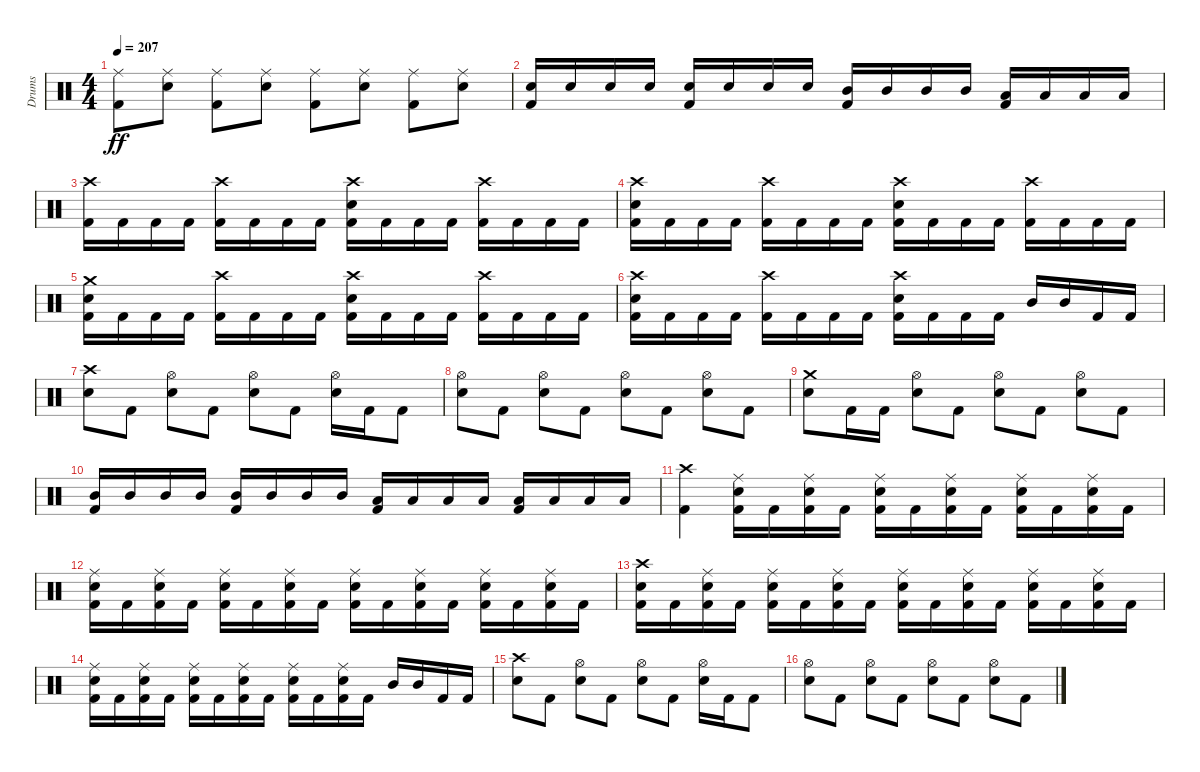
\track ("Drums" "Drums") {instrument percussion}
\staff {score}
\articulation defaults
\ts (4 4)
\tempo 207
\clef neutral
\ks c
("Ride (middle)" "Kick (hit) 2").8{dy ff} ("Ride (middle)" "Snare (hit) 2").8 ("Ride (middle)" "Kick (hit) 2").8 ("Ride (middle)" "Snare (hit) 2").8 ("Ride (middle)" "Kick (hit) 2").8 ("Ride (middle)" "Snare (hit) 2").8 ("Ride (middle)" "Kick (hit) 2").8 ("Ride (middle)" "Snare (hit) 2").8 |
("Snare (hit) 2" "Kick (hit) 2").16 "Snare (hit) 2".16 "Snare (hit) 2".16 "Snare (hit) 2".16 ("Snare (hit) 2" "Kick (hit) 2").16 "Snare (hit) 2".16 "Snare (hit) 2".16 "Snare (hit) 2".16 ("Mid Tom (hit)" "Kick (hit) 2").16 "Mid Tom (hit)".16 "Mid Tom (hit)".16 "Mid Tom (hit)".16 ("Low Tom (hit)" "Kick (hit) 2").16 "Low Tom (hit)".16 "Low Tom (hit)".16 "Low Tom (hit)".16 |
("Crash high (hit)" "Kick (hit) 2").16 "Kick (hit) 2".16 "Kick (hit) 2".16 "Kick (hit) 2".16 ("Crash high (hit)" "Kick (hit) 2").16 "Kick (hit) 2".16 "Kick (hit) 2".16 "Kick (hit) 2".16 ("Crash high (hit)" "Snare (hit) 2" "Kick (hit) 2").16 "Kick (hit) 2".16 "Kick (hit) 2".16 "Kick (hit) 2".16 ("Crash high (hit)" "Kick (hit) 2").16 "Kick (hit) 2".16 "Kick (hit) 2".16 "Kick (hit) 2".16 |
("Crash high (hit)" "Snare (hit) 2" "Kick (hit) 2").16 "Kick (hit) 2".16 "Kick (hit) 2".16 "Kick (hit) 2".16 ("Crash high (hit)" "Kick (hit) 2").16 "Kick (hit) 2".16 "Kick (hit) 2".16 "Kick (hit) 2".16 ("Crash high (hit)" "Snare (hit) 2" "Kick (hit) 2").16 "Kick (hit) 2".16 "Kick (hit) 2".16 "Kick (hit) 2".16 ("Crash high (hit)" "Kick (hit) 2").16 "Kick (hit) 2".16 "Kick (hit) 2".16 "Kick (hit) 2".16 |
("Crash medium (hit)" "Snare (hit) 2" "Kick (hit) 2").16 "Kick (hit) 2".16 "Kick (hit) 2".16 "Kick (hit) 2".16 ("Crash high (hit)" "Kick (hit) 2").16 "Kick (hit) 2".16 "Kick (hit) 2".16 "Kick (hit) 2".16 ("Crash high (hit)" "Snare (hit) 2" "Kick (hit) 2").16 "Kick (hit) 2".16 "Kick (hit) 2".16 "Kick (hit) 2".16 ("Crash high (hit)" "Kick (hit) 2").16 "Kick (hit) 2".16 "Kick (hit) 2".16 "Kick (hit) 2".16 |
("Crash high (hit)" "Snare (hit) 2" "Kick (hit) 2").16 "Kick (hit) 2".16 "Kick (hit) 2".16 "Kick (hit) 2".16 ("Crash high (hit)" "Kick (hit) 2").16 "Kick (hit) 2".16 "Kick (hit) 2".16 "Kick (hit) 2".16 ("Crash high (hit)" "Snare (hit) 2" "Kick (hit) 2").16 "Kick (hit) 2".16 "Kick (hit) 2".16 "Kick (hit) 2".16 "Mid Tom (hit)".16 "Mid Tom (hit)".16 "Kick (hit) 2".16 "Kick (hit) 2".16 |
("Crash high (hit)" "Snare (hit) 2").8 "Kick (hit) 2".8 ("Hi-Hat (open)" "Snare (hit) 2").8 "Kick (hit) 2".8 ("Hi-Hat (open)" "Snare (hit) 2").8 "Kick (hit) 2".8 ("Hi-Hat (open)" "Snare (hit) 2").16 "Kick (hit) 2".16 "Kick (hit) 2".8 |
("Hi-Hat (open)" "Snare (hit) 2").8 "Kick (hit) 2".8 ("Hi-Hat (open)" "Snare (hit) 2").8 "Kick (hit) 2".8 ("Hi-Hat (open)" "Snare (hit) 2").8 "Kick (hit) 2".8 ("Hi-Hat (open)" "Snare (hit) 2").8 "Kick (hit) 2".8 |
("Crash medium (hit)" "Snare (hit) 2").8 "Kick (hit) 2".16 "Kick (hit) 2".16 ("Hi-Hat (open)" "Snare (hit) 2").8 "Kick (hit) 2".8 ("Hi-Hat (open)" "Snare (hit) 2").8 "Kick (hit) 2".8 ("Hi-Hat (open)" "Snare (hit) 2").8 "Kick (hit) 2".8 |
("Mid Tom (hit)" "Kick (hit) 2").16 "Mid Tom (hit)".16 "Mid Tom (hit)".16 "Mid Tom (hit)".16 ("Mid Tom (hit)" "Kick (hit) 2").16 "Mid Tom (hit)".16 "Mid Tom (hit)".16 "Mid Tom (hit)".16 ("Low Tom (hit)" "Kick (hit) 2").16 "Low Tom (hit)".16 "Low Tom (hit)".16 "Low Tom (hit)".16 ("Low Tom (hit)" "Kick (hit) 2").16 "Low Tom (hit)".16 "Low Tom (hit)".16 "Low Tom (hit)".16 |
("Crash high (hit)" "Kick (hit) 2").4 ("Ride (middle)" "Snare (hit) 2" "Kick (hit) 2").16 "Kick (hit) 2".16 ("Ride (middle)" "Snare (hit) 2" "Kick (hit) 2").16 "Kick (hit) 2".16 ("Ride (middle)" "Snare (hit) 2" "Kick (hit) 2").16 "Kick (hit) 2".16 ("Ride (middle)" "Snare (hit) 2" "Kick (hit) 2").16 "Kick (hit) 2".16 ("Ride (middle)" "Snare (hit) 2" "Kick (hit) 2").16 "Kick (hit) 2".16 ("Ride (middle)" "Snare (hit) 2" "Kick (hit) 2").16 "Kick (hit) 2".16 |
("Ride (middle)" "Snare (hit) 2" "Kick (hit) 2").16 "Kick (hit) 2".16 ("Ride (middle)" "Snare (hit) 2" "Kick (hit) 2").16 "Kick (hit) 2".16 ("Ride (middle)" "Snare (hit) 2" "Kick (hit) 2").16 "Kick (hit) 2".16 ("Ride (middle)" "Snare (hit) 2" "Kick (hit) 2").16 "Kick (hit) 2".16 ("Ride (middle)" "Snare (hit) 2" "Kick (hit) 2").16 "Kick (hit) 2".16 ("Ride (middle)" "Snare (hit) 2" "Kick (hit) 2").16 "Kick (hit) 2".16 ("Ride (middle)" "Snare (hit) 2" "Kick (hit) 2").16 "Kick (hit) 2".16 ("Ride (middle)" "Snare (hit) 2" "Kick (hit) 2").16 "Kick (hit) 2".16 |
("Crash high (hit)" "Snare (hit) 2" "Kick (hit) 2").16 "Kick (hit) 2".16 ("Ride (middle)" "Snare (hit) 2" "Kick (hit) 2").16 "Kick (hit) 2".16 ("Ride (middle)" "Snare (hit) 2" "Kick (hit) 2").16 "Kick (hit) 2".16 ("Ride (middle)" "Snare (hit) 2" "Kick (hit) 2").16 "Kick (hit) 2".16 ("Ride (middle)" "Snare (hit) 2" "Kick (hit) 2").16 "Kick (hit) 2".16 ("Ride (middle)" "Snare (hit) 2" "Kick (hit) 2").16 "Kick (hit) 2".16 ("Ride (middle)" "Snare (hit) 2" "Kick (hit) 2").16 "Kick (hit) 2".16 ("Ride (middle)" "Snare (hit) 2" "Kick (hit) 2").16 "Kick (hit) 2".16 |
("Ride (middle)" "Snare (hit) 2" "Kick (hit) 2").16 "Kick (hit) 2".16 ("Ride (middle)" "Snare (hit) 2" "Kick (hit) 2").16 "Kick (hit) 2".16 ("Ride (middle)" "Snare (hit) 2" "Kick (hit) 2").16 "Kick (hit) 2".16 ("Ride (middle)" "Snare (hit) 2" "Kick (hit) 2").16 "Kick (hit) 2".16 ("Ride (middle)" "Snare (hit) 2" "Kick (hit) 2").16 "Kick (hit) 2".16 ("Ride (middle)" "Snare (hit) 2" "Kick (hit) 2").16 "Kick (hit) 2".16 "Mid Tom (hit)".16 "Mid Tom (hit)".16 "Kick (hit) 2".16 "Kick (hit) 2".16 |
("Crash high (hit)" "Snare (hit) 2").8 "Kick (hit) 2".8 ("Hi-Hat (open)" "Snare (hit) 2").8 "Kick (hit) 2".8 ("Hi-Hat (open)" "Snare (hit) 2").8 "Kick (hit) 2".8 ("Hi-Hat (open)" "Snare (hit) 2").16 "Kick (hit) 2".16 "Kick (hit) 2".8 |
("Hi-Hat (open)" "Snare (hit) 2").8 "Kick (hit) 2".8 ("Hi-Hat (open)" "Snare (hit) 2").8 "Kick (hit) 2".8 ("Hi-Hat (open)" "Snare (hit) 2").8 "Kick (hit) 2".8 ("Hi-Hat (open)" "Snare (hit) 2").8 "Kick (hit) 2".8
